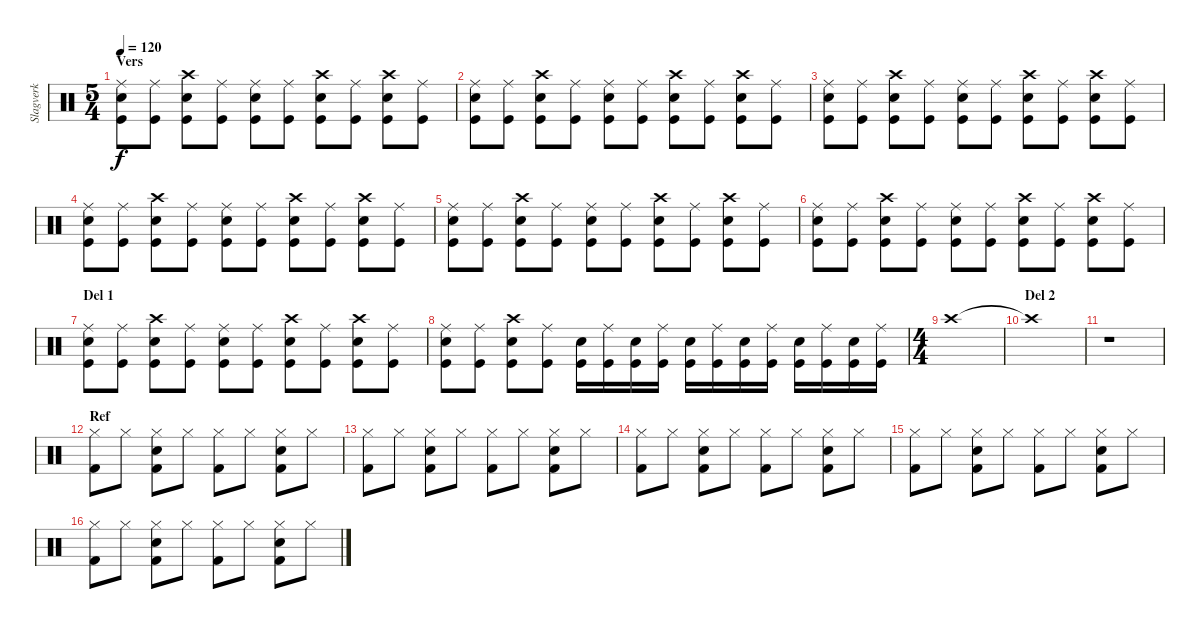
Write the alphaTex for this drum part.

\track ("Slagverk" "Slagverk") {instrument percussion}
\staff {score}
\articulation defaults
\ts (5 4)
\section ("" "Vers")
\tempo 120
\clef neutral
\ks c
("Kick (hit)" "Snare (hit) 2" "Ride (middle)").8{dy f} ("Kick (hit)" "Ride (middle)").8 ("Kick (hit)" "Snare (hit) 2" "Crash high (hit)").8 ("Kick (hit)" "Ride (middle)").8 ("Kick (hit)" "Snare (hit) 2" "Ride (middle)").8 ("Kick (hit)" "Ride (middle)").8 ("Kick (hit)" "Snare (hit) 2" "Crash high (hit)").8 ("Kick (hit)" "Ride (middle)").8 ("Kick (hit)" "Snare (hit) 2" "Crash high (hit)").8 ("Kick (hit)" "Ride (middle)").8 |
("Kick (hit)" "Snare (hit) 2" "Ride (middle)").8 ("Kick (hit)" "Ride (middle)").8 ("Kick (hit)" "Snare (hit) 2" "Crash high (hit)").8 ("Kick (hit)" "Ride (middle)").8 ("Kick (hit)" "Snare (hit) 2" "Ride (middle)").8 ("Kick (hit)" "Ride (middle)").8 ("Kick (hit)" "Snare (hit) 2" "Crash high (hit)").8 ("Kick (hit)" "Ride (middle)").8 ("Kick (hit)" "Snare (hit) 2" "Crash high (hit)").8 ("Kick (hit)" "Ride (middle)").8 |
("Kick (hit)" "Snare (hit) 2" "Ride (middle)").8 ("Kick (hit)" "Ride (middle)").8 ("Kick (hit)" "Snare (hit) 2" "Crash high (hit)").8 ("Kick (hit)" "Ride (middle)").8 ("Kick (hit)" "Snare (hit) 2" "Ride (middle)").8 ("Kick (hit)" "Ride (middle)").8 ("Kick (hit)" "Snare (hit) 2" "Crash high (hit)").8 ("Kick (hit)" "Ride (middle)").8 ("Kick (hit)" "Snare (hit) 2" "Crash high (hit)").8 ("Kick (hit)" "Ride (middle)").8 |
("Kick (hit)" "Snare (hit) 2" "Ride (middle)").8 ("Kick (hit)" "Ride (middle)").8 ("Kick (hit)" "Snare (hit) 2" "Crash high (hit)").8 ("Kick (hit)" "Ride (middle)").8 ("Kick (hit)" "Snare (hit) 2" "Ride (middle)").8 ("Kick (hit)" "Ride (middle)").8 ("Kick (hit)" "Snare (hit) 2" "Crash high (hit)").8 ("Kick (hit)" "Ride (middle)").8 ("Kick (hit)" "Snare (hit) 2" "Crash high (hit)").8 ("Kick (hit)" "Ride (middle)").8 |
("Kick (hit)" "Snare (hit) 2" "Ride (middle)").8 ("Kick (hit)" "Ride (middle)").8 ("Kick (hit)" "Snare (hit) 2" "Crash high (hit)").8 ("Kick (hit)" "Ride (middle)").8 ("Kick (hit)" "Snare (hit) 2" "Ride (middle)").8 ("Kick (hit)" "Ride (middle)").8 ("Kick (hit)" "Snare (hit) 2" "Crash high (hit)").8 ("Kick (hit)" "Ride (middle)").8 ("Kick (hit)" "Snare (hit) 2" "Crash high (hit)").8 ("Kick (hit)" "Ride (middle)").8 |
("Kick (hit)" "Snare (hit) 2" "Ride (middle)").8 ("Kick (hit)" "Ride (middle)").8 ("Kick (hit)" "Snare (hit) 2" "Crash high (hit)").8 ("Kick (hit)" "Ride (middle)").8 ("Kick (hit)" "Snare (hit) 2" "Ride (middle)").8 ("Kick (hit)" "Ride (middle)").8 ("Kick (hit)" "Snare (hit) 2" "Crash high (hit)").8 ("Kick (hit)" "Ride (middle)").8 ("Kick (hit)" "Snare (hit) 2" "Crash high (hit)").8 ("Kick (hit)" "Ride (middle)").8 |
\section ("" "Del 1")
("Kick (hit)" "Snare (hit) 2" "Ride (middle)").8 ("Kick (hit)" "Ride (middle)").8 ("Kick (hit)" "Snare (hit) 2" "Crash high (hit)").8 ("Kick (hit)" "Ride (middle)").8 ("Kick (hit)" "Snare (hit) 2" "Ride (middle)").8 ("Kick (hit)" "Ride (middle)").8 ("Kick (hit)" "Snare (hit) 2" "Crash high (hit)").8 ("Kick (hit)" "Ride (middle)").8 ("Kick (hit)" "Snare (hit) 2" "Crash high (hit)").8 ("Kick (hit)" "Ride (middle)").8 |
("Kick (hit)" "Snare (hit) 2" "Ride (middle)").8 ("Kick (hit)" "Ride (middle)").8 ("Kick (hit)" "Snare (hit) 2" "Crash high (hit)").8 ("Kick (hit)" "Ride (middle)").8 ("Kick (hit)" "Snare (hit) 2").16 ("Kick (hit)" "Ride (middle)").16 ("Kick (hit)" "Snare (hit) 2").16 ("Kick (hit)" "Ride (middle)").16 ("Kick (hit)" "Snare (hit) 2").16 ("Kick (hit)" "Ride (middle)").16 ("Kick (hit)" "Snare (hit) 2").16 ("Kick (hit)" "Ride (middle)").16 ("Kick (hit)" "Snare (hit) 2").16 ("Kick (hit)" "Ride (middle)").16 ("Kick (hit)" "Snare (hit) 2").16 ("Kick (hit)" "Ride (middle)").16 |
\ts (4 4)
"Crash high (hit)".1 |
\section ("" "Del 2")
"Crash high (hit)"{t}.1 |
r.1 |
\section ("" "Ref")
("Kick (hit) 2" "Hi-Hat (closed)").8 "Hi-Hat (closed)".8 ("Kick (hit) 2" "Hi-Hat (closed)" "Snare (hit) 2").8 "Hi-Hat (closed)".8 ("Kick (hit) 2" "Hi-Hat (closed)").8 "Hi-Hat (closed)".8 ("Kick (hit) 2" "Hi-Hat (closed)" "Snare (hit) 2").8 "Hi-Hat (closed)".8 |
("Kick (hit) 2" "Hi-Hat (closed)").8 "Hi-Hat (closed)".8 ("Kick (hit) 2" "Hi-Hat (closed)" "Snare (hit) 2").8 "Hi-Hat (closed)".8 ("Kick (hit) 2" "Hi-Hat (closed)").8 "Hi-Hat (closed)".8 ("Kick (hit) 2" "Hi-Hat (closed)" "Snare (hit) 2").8 "Hi-Hat (closed)".8 |
("Kick (hit) 2" "Hi-Hat (closed)").8 "Hi-Hat (closed)".8 ("Kick (hit) 2" "Hi-Hat (closed)" "Snare (hit) 2").8 "Hi-Hat (closed)".8 ("Kick (hit) 2" "Hi-Hat (closed)").8 "Hi-Hat (closed)".8 ("Kick (hit) 2" "Hi-Hat (closed)" "Snare (hit) 2").8 "Hi-Hat (closed)".8 |
("Kick (hit) 2" "Hi-Hat (closed)").8 "Hi-Hat (closed)".8 ("Kick (hit) 2" "Hi-Hat (closed)" "Snare (hit) 2").8 "Hi-Hat (closed)".8 ("Kick (hit) 2" "Hi-Hat (closed)").8 "Hi-Hat (closed)".8 ("Kick (hit) 2" "Hi-Hat (closed)" "Snare (hit) 2").8 "Hi-Hat (closed)".8 |
("Kick (hit) 2" "Hi-Hat (closed)").8 "Hi-Hat (closed)".8 ("Kick (hit) 2" "Hi-Hat (closed)" "Snare (hit) 2").8 "Hi-Hat (closed)".8 ("Kick (hit) 2" "Hi-Hat (closed)").8 "Hi-Hat (closed)".8 ("Kick (hit) 2" "Hi-Hat (closed)" "Snare (hit) 2").8 "Hi-Hat (closed)".8
